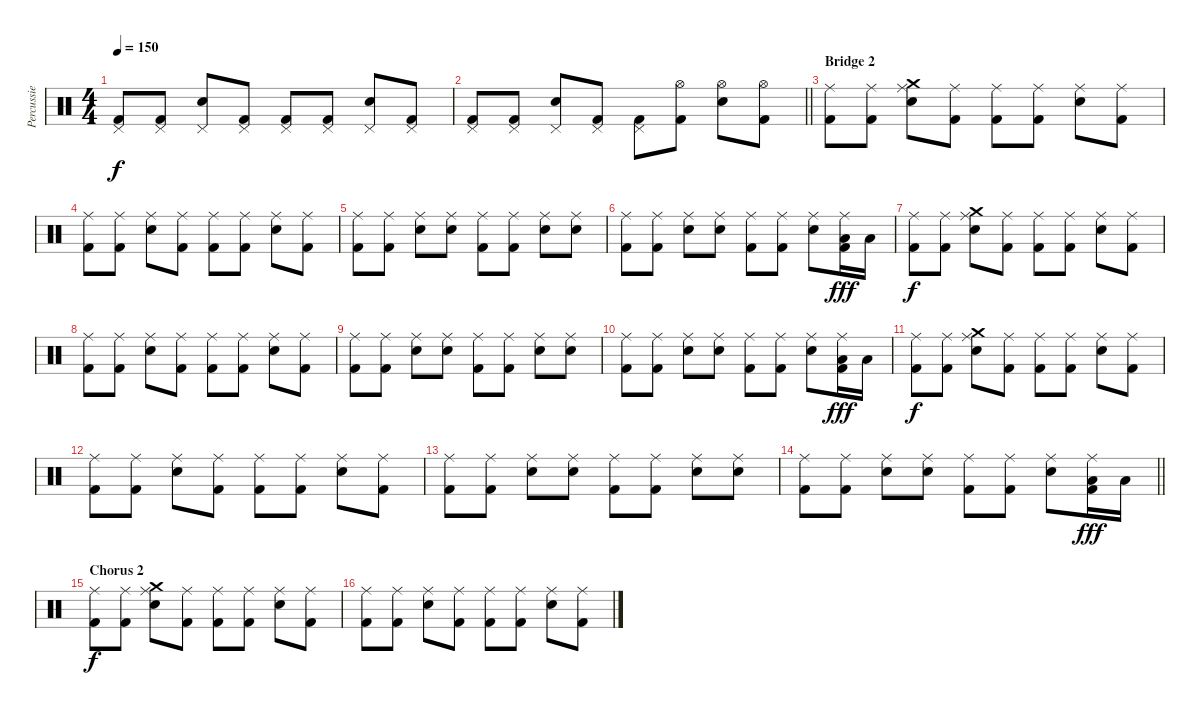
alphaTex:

\track ("Percussie" "Percussie") {instrument percussion}
\staff {score}
\articulation defaults
\ts (4 4)
\tempo 150
\clef neutral
\ks c
("Pedal Hi-Hat (hit)" "Kick (hit) 2").8{dy f} ("Pedal Hi-Hat (hit)" "Kick (hit) 2").8 ("Pedal Hi-Hat (hit)" "Snare (hit) 2").8 ("Pedal Hi-Hat (hit)" "Kick (hit) 2").8 ("Pedal Hi-Hat (hit)" "Kick (hit) 2").8 ("Pedal Hi-Hat (hit)" "Kick (hit) 2").8 ("Pedal Hi-Hat (hit)" "Snare (hit) 2").8 ("Pedal Hi-Hat (hit)" "Kick (hit) 2").8 |
\barLineRight lightlight
("Pedal Hi-Hat (hit)" "Kick (hit) 2").8 ("Pedal Hi-Hat (hit)" "Kick (hit) 2").8 ("Pedal Hi-Hat (hit)" "Snare (hit) 2").8 ("Pedal Hi-Hat (hit)" "Kick (hit) 2").8 ("Pedal Hi-Hat (hit)" "Kick (hit) 2").8 ("Hi-Hat (open)" "Kick (hit) 2").8 ("Hi-Hat (open)" "Snare (hit) 2").8 ("Hi-Hat (open)" "Kick (hit) 2").8 |
\section ("" "Bridge 2")
("Ride (middle)" "Kick (hit) 2").8 ("Ride (middle)" "Kick (hit) 2").8 ("Crash medium (hit)" "Ride (middle)" "Snare (hit) 2").8 ("Ride (middle)" "Kick (hit) 2").8 ("Ride (middle)" "Kick (hit) 2").8 ("Ride (middle)" "Kick (hit) 2").8 ("Ride (middle)" "Snare (hit) 2").8 ("Ride (middle)" "Kick (hit) 2").8 |
("Ride (middle)" "Kick (hit) 2").8 ("Ride (middle)" "Kick (hit) 2").8 ("Ride (middle)" "Snare (hit) 2").8 ("Ride (middle)" "Kick (hit) 2").8 ("Ride (middle)" "Kick (hit) 2").8 ("Ride (middle)" "Kick (hit) 2").8 ("Ride (middle)" "Snare (hit) 2").8 ("Ride (middle)" "Kick (hit) 2").8 |
("Ride (middle)" "Kick (hit) 2").8 ("Ride (middle)" "Kick (hit) 2").8 ("Ride (middle)" "Snare (hit) 2").8 ("Ride (middle)" "Snare (hit) 2").8 ("Ride (middle)" "Kick (hit) 2").8 ("Ride (middle)" "Kick (hit) 2").8 ("Ride (middle)" "Snare (hit) 2").8 ("Ride (middle)" "Snare (hit) 2").8 |
("Ride (middle)" "Kick (hit) 2").8 ("Ride (middle)" "Kick (hit) 2").8 ("Ride (middle)" "Snare (hit) 2").8 ("Ride (middle)" "Snare (hit) 2").8 ("Ride (middle)" "Kick (hit) 2").8 ("Ride (middle)" "Kick (hit) 2").8 ("Ride (middle)" "Snare (hit) 2").8 ("Ride (middle)" "Low Floor Tom (hit)" "Kick (hit) 2").16{dy fff} "Low Floor Tom (hit)".16 |
("Ride (middle)" "Kick (hit) 2").8{dy f} ("Ride (middle)" "Kick (hit) 2").8 ("Crash medium (hit)" "Ride (middle)" "Snare (hit) 2").8 ("Ride (middle)" "Kick (hit) 2").8 ("Ride (middle)" "Kick (hit) 2").8 ("Ride (middle)" "Kick (hit) 2").8 ("Ride (middle)" "Snare (hit) 2").8 ("Ride (middle)" "Kick (hit) 2").8 |
("Ride (middle)" "Kick (hit) 2").8 ("Ride (middle)" "Kick (hit) 2").8 ("Ride (middle)" "Snare (hit) 2").8 ("Ride (middle)" "Kick (hit) 2").8 ("Ride (middle)" "Kick (hit) 2").8 ("Ride (middle)" "Kick (hit) 2").8 ("Ride (middle)" "Snare (hit) 2").8 ("Ride (middle)" "Kick (hit) 2").8 |
("Ride (middle)" "Kick (hit) 2").8 ("Ride (middle)" "Kick (hit) 2").8 ("Ride (middle)" "Snare (hit) 2").8 ("Ride (middle)" "Snare (hit) 2").8 ("Ride (middle)" "Kick (hit) 2").8 ("Ride (middle)" "Kick (hit) 2").8 ("Ride (middle)" "Snare (hit) 2").8 ("Ride (middle)" "Snare (hit) 2").8 |
("Ride (middle)" "Kick (hit) 2").8 ("Ride (middle)" "Kick (hit) 2").8 ("Ride (middle)" "Snare (hit) 2").8 ("Ride (middle)" "Snare (hit) 2").8 ("Ride (middle)" "Kick (hit) 2").8 ("Ride (middle)" "Kick (hit) 2").8 ("Ride (middle)" "Snare (hit) 2").8 ("Ride (middle)" "Low Floor Tom (hit)" "Kick (hit) 2").16{dy fff} "Low Floor Tom (hit)".16 |
("Ride (middle)" "Kick (hit) 2").8{dy f} ("Ride (middle)" "Kick (hit) 2").8 ("Crash medium (hit)" "Ride (middle)" "Snare (hit) 2").8 ("Ride (middle)" "Kick (hit) 2").8 ("Ride (middle)" "Kick (hit) 2").8 ("Ride (middle)" "Kick (hit) 2").8 ("Ride (middle)" "Snare (hit) 2").8 ("Ride (middle)" "Kick (hit) 2").8 |
("Ride (middle)" "Kick (hit) 2").8 ("Ride (middle)" "Kick (hit) 2").8 ("Ride (middle)" "Snare (hit) 2").8 ("Ride (middle)" "Kick (hit) 2").8 ("Ride (middle)" "Kick (hit) 2").8 ("Ride (middle)" "Kick (hit) 2").8 ("Ride (middle)" "Snare (hit) 2").8 ("Ride (middle)" "Kick (hit) 2").8 |
("Ride (middle)" "Kick (hit) 2").8 ("Ride (middle)" "Kick (hit) 2").8 ("Ride (middle)" "Snare (hit) 2").8 ("Ride (middle)" "Snare (hit) 2").8 ("Ride (middle)" "Kick (hit) 2").8 ("Ride (middle)" "Kick (hit) 2").8 ("Ride (middle)" "Snare (hit) 2").8 ("Ride (middle)" "Snare (hit) 2").8 |
\barLineRight lightlight
("Ride (middle)" "Kick (hit) 2").8 ("Ride (middle)" "Kick (hit) 2").8 ("Ride (middle)" "Snare (hit) 2").8 ("Ride (middle)" "Snare (hit) 2").8 ("Ride (middle)" "Kick (hit) 2").8 ("Ride (middle)" "Kick (hit) 2").8 ("Ride (middle)" "Snare (hit) 2").8 ("Ride (middle)" "Low Floor Tom (hit)" "Kick (hit) 2").16{dy fff} "Low Floor Tom (hit)".16 |
\section ("" "Chorus 2")
("Ride (middle)" "Kick (hit) 2").8{dy f} ("Ride (middle)" "Kick (hit) 2").8 ("Crash medium (hit)" "Ride (middle)" "Snare (hit) 2").8 ("Ride (middle)" "Kick (hit) 2").8 ("Ride (middle)" "Kick (hit) 2").8 ("Ride (middle)" "Kick (hit) 2").8 ("Ride (middle)" "Snare (hit) 2").8 ("Ride (middle)" "Kick (hit) 2").8 |
("Ride (middle)" "Kick (hit) 2").8 ("Ride (middle)" "Kick (hit) 2").8 ("Ride (middle)" "Snare (hit) 2").8 ("Ride (middle)" "Kick (hit) 2").8 ("Ride (middle)" "Kick (hit) 2").8 ("Ride (middle)" "Kick (hit) 2").8 ("Ride (middle)" "Snare (hit) 2").8 ("Ride (middle)" "Kick (hit) 2").8
